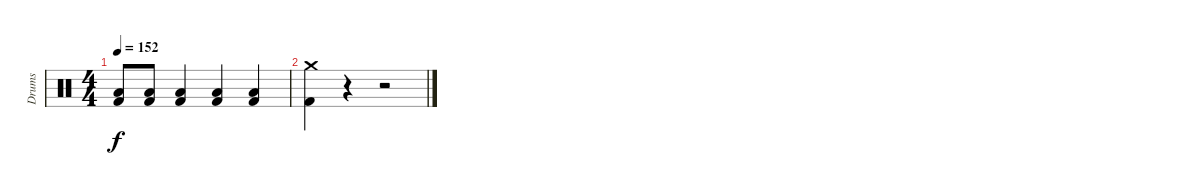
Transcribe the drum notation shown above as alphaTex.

\track ("Drums" "Drums") {instrument percussion}
\staff {score}
\articulation defaults
\ts (4 4)
\tempo 152
\clef neutral
\ks c
("Low Tom (hit)" "Kick (hit) 2").8{dy f} ("Low Tom (hit)" "Kick (hit) 2").8 ("Low Tom (hit)" "Kick (hit) 2").4 ("Low Tom (hit)" "Kick (hit) 2").4 ("Low Tom (hit)" "Kick (hit) 2").4 |
("Crash medium (hit)" "Kick (hit) 2").4 r.4 r.2
